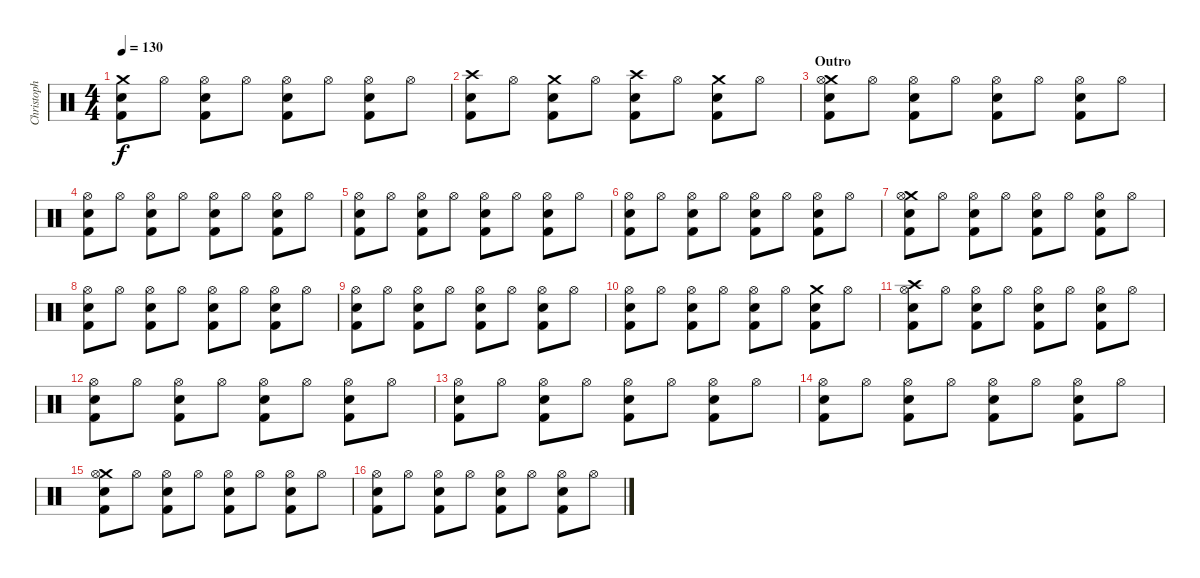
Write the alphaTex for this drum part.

\track ("Christoph Schneider" "Christoph ") {instrument percussion}
\staff {score}
\articulation defaults
\ts (4 4)
\tempo 130
\clef neutral
\ks c
("Crash medium (hit)" "Snare (hit) 2" "Kick (hit) 2").8{dy f} "Hi-Hat (open)".8 ("Hi-Hat (open)" "Snare (hit) 2" "Kick (hit) 2").8 "Hi-Hat (open)".8 ("Hi-Hat (open)" "Snare (hit) 2" "Kick (hit) 2").8 "Hi-Hat (open)".8 ("Hi-Hat (open)" "Snare (hit) 2" "Kick (hit) 2").8 "Hi-Hat (open)".8 |
("Crash high (hit)" "Snare (hit) 2" "Kick (hit) 2").8 "Hi-Hat (open)".8 ("Crash medium (hit)" "Snare (hit) 2" "Kick (hit) 2").8 "Hi-Hat (open)".8 ("Crash high (hit)" "Snare (hit) 2" "Kick (hit) 2").8 "Hi-Hat (open)".8 ("Crash medium (hit)" "Snare (hit) 2" "Kick (hit) 2").8 "Hi-Hat (open)".8 |
\section ("" "Outro")
("Crash medium (hit)" "Hi-Hat (open)" "Snare (hit) 2" "Kick (hit) 2").8 "Hi-Hat (open)".8 ("Hi-Hat (open)" "Snare (hit) 2" "Kick (hit) 2").8 "Hi-Hat (open)".8 ("Hi-Hat (open)" "Snare (hit) 2" "Kick (hit) 2").8 "Hi-Hat (open)".8 ("Hi-Hat (open)" "Snare (hit) 2" "Kick (hit) 2").8 "Hi-Hat (open)".8 |
("Hi-Hat (open)" "Snare (hit) 2" "Kick (hit) 2").8 "Hi-Hat (open)".8 ("Hi-Hat (open)" "Snare (hit) 2" "Kick (hit) 2").8 "Hi-Hat (open)".8 ("Hi-Hat (open)" "Snare (hit) 2" "Kick (hit) 2").8 "Hi-Hat (open)".8 ("Hi-Hat (open)" "Snare (hit) 2" "Kick (hit) 2").8 "Hi-Hat (open)".8 |
("Hi-Hat (open)" "Snare (hit) 2" "Kick (hit) 2").8 "Hi-Hat (open)".8 ("Hi-Hat (open)" "Snare (hit) 2" "Kick (hit) 2").8 "Hi-Hat (open)".8 ("Hi-Hat (open)" "Snare (hit) 2" "Kick (hit) 2").8 "Hi-Hat (open)".8 ("Hi-Hat (open)" "Snare (hit) 2" "Kick (hit) 2").8 "Hi-Hat (open)".8 |
("Hi-Hat (open)" "Snare (hit) 2" "Kick (hit) 2").8 "Hi-Hat (open)".8 ("Hi-Hat (open)" "Snare (hit) 2" "Kick (hit) 2").8 "Hi-Hat (open)".8 ("Hi-Hat (open)" "Snare (hit) 2" "Kick (hit) 2").8 "Hi-Hat (open)".8 ("Hi-Hat (open)" "Snare (hit) 2" "Kick (hit) 2").8 "Hi-Hat (open)".8 |
("Crash medium (hit)" "Hi-Hat (open)" "Snare (hit) 2" "Kick (hit) 2").8 "Hi-Hat (open)".8 ("Hi-Hat (open)" "Snare (hit) 2" "Kick (hit) 2").8 "Hi-Hat (open)".8 ("Hi-Hat (open)" "Snare (hit) 2" "Kick (hit) 2").8 "Hi-Hat (open)".8 ("Hi-Hat (open)" "Snare (hit) 2" "Kick (hit) 2").8 "Hi-Hat (open)".8 |
("Hi-Hat (open)" "Snare (hit) 2" "Kick (hit) 2").8 "Hi-Hat (open)".8 ("Hi-Hat (open)" "Snare (hit) 2" "Kick (hit) 2").8 "Hi-Hat (open)".8 ("Hi-Hat (open)" "Snare (hit) 2" "Kick (hit) 2").8 "Hi-Hat (open)".8 ("Hi-Hat (open)" "Snare (hit) 2" "Kick (hit) 2").8 "Hi-Hat (open)".8 |
("Hi-Hat (open)" "Snare (hit) 2" "Kick (hit) 2").8 "Hi-Hat (open)".8 ("Hi-Hat (open)" "Snare (hit) 2" "Kick (hit) 2").8 "Hi-Hat (open)".8 ("Hi-Hat (open)" "Snare (hit) 2" "Kick (hit) 2").8 "Hi-Hat (open)".8 ("Hi-Hat (open)" "Snare (hit) 2" "Kick (hit) 2").8 "Hi-Hat (open)".8 |
("Hi-Hat (open)" "Snare (hit) 2" "Kick (hit) 2").8 "Hi-Hat (open)".8 ("Hi-Hat (open)" "Snare (hit) 2" "Kick (hit) 2").8 "Hi-Hat (open)".8 ("Hi-Hat (open)" "Snare (hit) 2" "Kick (hit) 2").8 "Hi-Hat (open)".8 ("Crash medium (hit)" "Snare (hit) 2" "Kick (hit) 2").8 "Hi-Hat (open)".8 |
("Crash high (hit)" "Hi-Hat (open)" "Snare (hit) 2" "Kick (hit) 2").8 "Hi-Hat (open)".8 ("Hi-Hat (open)" "Snare (hit) 2" "Kick (hit) 2").8 "Hi-Hat (open)".8 ("Hi-Hat (open)" "Snare (hit) 2" "Kick (hit) 2").8 "Hi-Hat (open)".8 ("Hi-Hat (open)" "Snare (hit) 2" "Kick (hit) 2").8 "Hi-Hat (open)".8 |
("Hi-Hat (open)" "Snare (hit) 2" "Kick (hit) 2").8 "Hi-Hat (open)".8 ("Hi-Hat (open)" "Snare (hit) 2" "Kick (hit) 2").8 "Hi-Hat (open)".8 ("Hi-Hat (open)" "Snare (hit) 2" "Kick (hit) 2").8 "Hi-Hat (open)".8 ("Hi-Hat (open)" "Snare (hit) 2" "Kick (hit) 2").8 "Hi-Hat (open)".8 |
("Hi-Hat (open)" "Snare (hit) 2" "Kick (hit) 2").8 "Hi-Hat (open)".8 ("Hi-Hat (open)" "Snare (hit) 2" "Kick (hit) 2").8 "Hi-Hat (open)".8 ("Hi-Hat (open)" "Snare (hit) 2" "Kick (hit) 2").8 "Hi-Hat (open)".8 ("Hi-Hat (open)" "Snare (hit) 2" "Kick (hit) 2").8 "Hi-Hat (open)".8 |
("Hi-Hat (open)" "Snare (hit) 2" "Kick (hit) 2").8 "Hi-Hat (open)".8 ("Hi-Hat (open)" "Snare (hit) 2" "Kick (hit) 2").8 "Hi-Hat (open)".8 ("Hi-Hat (open)" "Snare (hit) 2" "Kick (hit) 2").8 "Hi-Hat (open)".8 ("Hi-Hat (open)" "Snare (hit) 2" "Kick (hit) 2").8 "Hi-Hat (open)".8 |
("Crash medium (hit)" "Hi-Hat (open)" "Snare (hit) 2" "Kick (hit) 2").8 "Hi-Hat (open)".8 ("Hi-Hat (open)" "Snare (hit) 2" "Kick (hit) 2").8 "Hi-Hat (open)".8 ("Hi-Hat (open)" "Snare (hit) 2" "Kick (hit) 2").8 "Hi-Hat (open)".8 ("Hi-Hat (open)" "Snare (hit) 2" "Kick (hit) 2").8 "Hi-Hat (open)".8 |
("Hi-Hat (open)" "Snare (hit) 2" "Kick (hit) 2").8 "Hi-Hat (open)".8 ("Hi-Hat (open)" "Snare (hit) 2" "Kick (hit) 2").8 "Hi-Hat (open)".8 ("Hi-Hat (open)" "Snare (hit) 2" "Kick (hit) 2").8 "Hi-Hat (open)".8 ("Hi-Hat (open)" "Snare (hit) 2" "Kick (hit) 2").8 "Hi-Hat (open)".8
